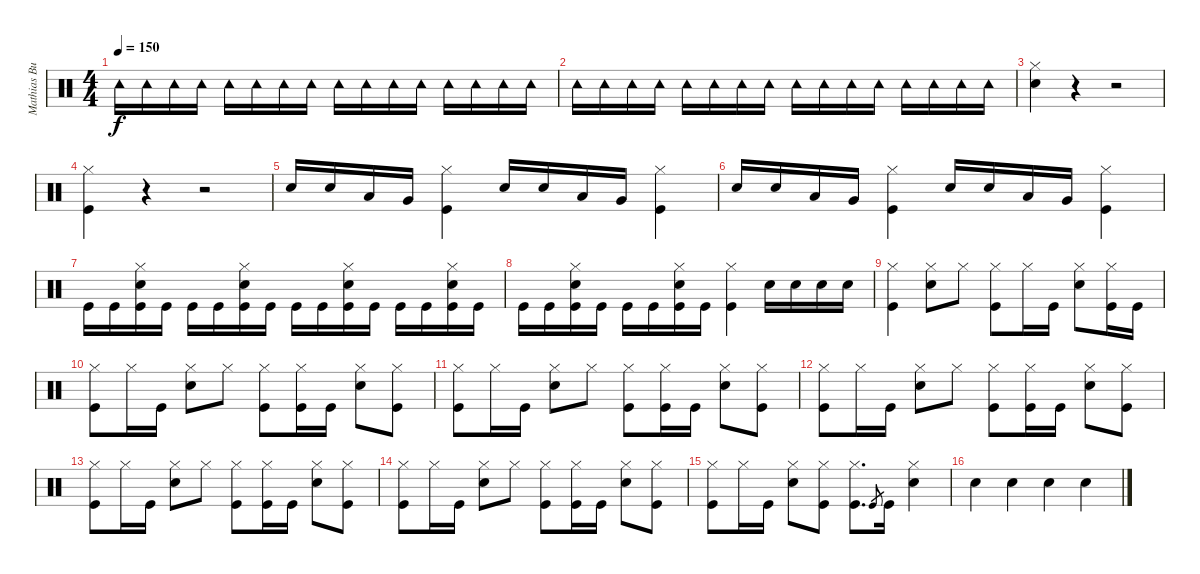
\track ("Mathias Burchardt - batterie" "Mathias Bu") {instrument percussion}
\staff {score}
\articulation defaults
\ts (4 4)
\tempo 150
\clef neutral
\ks c "Tambourine (hit)".16{dy f} "Tambourine (hit)".16 "Tambourine (hit)".16 "Tambourine (hit)".16 "Tambourine (hit)".16 "Tambourine (hit)".16 "Tambourine (hit)".16 "Tambourine (hit)".16 "Tambourine (hit)".16 "Tambourine (hit)".16 "Tambourine (hit)".16 "Tambourine (hit)".16 "Tambourine (hit)".16 "Tambourine (hit)".16 "Tambourine (hit)".16 "Tambourine (hit)".16
|
"Tambourine (hit)".16 "Tambourine (hit)".16 "Tambourine (hit)".16 "Tambourine (hit)".16 "Tambourine (hit)".16 "Tambourine (hit)".16 "Tambourine (hit)".16 "Tambourine (hit)".16 "Tambourine (hit)".16 "Tambourine (hit)".16 "Tambourine (hit)".16 "Tambourine (hit)".16 "Tambourine (hit)".16 "Tambourine (hit)".16 "Tambourine (hit)".16 "Tambourine (hit)".16 |
("Hi-Hat (closed)" "Snare (hit) 2").4 r.4 r.2 |
("Hi-Hat (closed)" "Kick (hit)").4 r.4 r.2 |
"Snare (hit) 2".16 "Snare (hit) 2".16 "Low Tom (hit)".16 "Very Low Tom (hit)".16 ("Hi-Hat (closed)" "Kick (hit)").4 "Snare (hit) 2".16 "Snare (hit) 2".16 "Low Tom (hit)".16 "Very Low Tom (hit)".16 ("Hi-Hat (closed)" "Kick (hit)").4 |
"Snare (hit) 2".16 "Snare (hit) 2".16 "Low Tom (hit)".16 "Very Low Tom (hit)".16 ("Hi-Hat (closed)" "Kick (hit)").4 "Snare (hit) 2".16 "Snare (hit) 2".16 "Low Tom (hit)".16 "Very Low Tom (hit)".16 ("Hi-Hat (closed)" "Kick (hit)").4 |
"Kick (hit)".16 "Kick (hit)".16 ("Hi-Hat (closed)" "Snare (hit) 2" "Kick (hit)").16 "Kick (hit)".16 "Kick (hit)".16 "Kick (hit)".16 ("Hi-Hat (closed)" "Snare (hit) 2" "Kick (hit)").16 "Kick (hit)".16 "Kick (hit)".16 "Kick (hit)".16 ("Hi-Hat (closed)" "Snare (hit) 2" "Kick (hit)").16 "Kick (hit)".16 "Kick (hit)".16 "Kick (hit)".16 ("Hi-Hat (closed)" "Snare (hit) 2" "Kick (hit)").16 "Kick (hit)".16 |
"Kick (hit)".16 "Kick (hit)".16 ("Hi-Hat (closed)" "Snare (hit) 2" "Kick (hit)").16 "Kick (hit)".16 "Kick (hit)".16 "Kick (hit)".16 ("Hi-Hat (closed)" "Snare (hit) 2" "Kick (hit)").16 "Kick (hit)".16 ("Hi-Hat (closed)" "Kick (hit)").4 "Snare (hit) 2".16 "Snare (hit) 2".16 "Snare (hit) 2".16 "Snare (hit) 2".16 |
("Hi-Hat (closed)" "Kick (hit)").4 ("Hi-Hat (closed)" "Snare (hit) 2").8 "Hi-Hat (closed)".8 ("Hi-Hat (closed)" "Kick (hit)").8 "Hi-Hat (closed)".16 "Kick (hit)".16 ("Hi-Hat (closed)" "Snare (hit) 2").8 ("Hi-Hat (closed)" "Kick (hit)").16 "Kick (hit)".16 |
("Hi-Hat (closed)" "Kick (hit)").8 "Hi-Hat (closed)".16 "Kick (hit)".16 ("Hi-Hat (closed)" "Snare (hit) 2").8 "Hi-Hat (closed)".8 ("Hi-Hat (closed)" "Kick (hit)").8 ("Hi-Hat (closed)" "Kick (hit)").16 "Kick (hit)".16 ("Hi-Hat (closed)" "Snare (hit) 2").8 ("Hi-Hat (closed)" "Kick (hit)").8 |
("Hi-Hat (closed)" "Kick (hit)").8 "Hi-Hat (closed)".16 "Kick (hit)".16 ("Hi-Hat (closed)" "Snare (hit) 2").8 "Hi-Hat (closed)".8 ("Hi-Hat (closed)" "Kick (hit)").8 ("Hi-Hat (closed)" "Kick (hit)").16 "Kick (hit)".16 ("Hi-Hat (closed)" "Snare (hit) 2").8 ("Hi-Hat (closed)" "Kick (hit)").8 |
("Hi-Hat (closed)" "Kick (hit)").8 "Hi-Hat (closed)".16 "Kick (hit)".16 ("Hi-Hat (closed)" "Snare (hit) 2").8 "Hi-Hat (closed)".8 ("Hi-Hat (closed)" "Kick (hit)").8 ("Hi-Hat (closed)" "Kick (hit)").16 "Kick (hit)".16 ("Hi-Hat (closed)" "Snare (hit) 2").8 ("Hi-Hat (closed)" "Kick (hit)").8 |
("Hi-Hat (closed)" "Kick (hit)").8 "Hi-Hat (closed)".16 "Kick (hit)".16 ("Hi-Hat (closed)" "Snare (hit) 2").8 "Hi-Hat (closed)".8 ("Hi-Hat (closed)" "Kick (hit)").8 ("Hi-Hat (closed)" "Kick (hit)").16 "Kick (hit)".16 ("Hi-Hat (closed)" "Snare (hit) 2").8 ("Hi-Hat (closed)" "Kick (hit)").8 |
("Hi-Hat (closed)" "Kick (hit)").8 "Hi-Hat (closed)".16 "Kick (hit)".16 ("Hi-Hat (closed)" "Snare (hit) 2").8 "Hi-Hat (closed)".8 ("Hi-Hat (closed)" "Kick (hit)").8 ("Hi-Hat (closed)" "Kick (hit)").16 "Kick (hit)".16 ("Hi-Hat (closed)" "Snare (hit) 2").8 ("Hi-Hat (closed)" "Kick (hit)").8 |
("Hi-Hat (closed)" "Kick (hit)").8 "Hi-Hat (closed)".16 "Kick (hit)".16 ("Hi-Hat (closed)" "Snare (hit) 2").8 ("Hi-Hat (closed)" "Kick (hit)").8 ("Hi-Hat (closed)" "Kick (hit)").8{d} "Kick (hit)".8{gr} "Kick (hit)".16 ("Hi-Hat (closed)" "Snare (hit) 2").4 |
"Snare (hit) 2".4 "Snare (hit) 2".4 "Snare (hit) 2".4 "Snare (hit) 2".4
